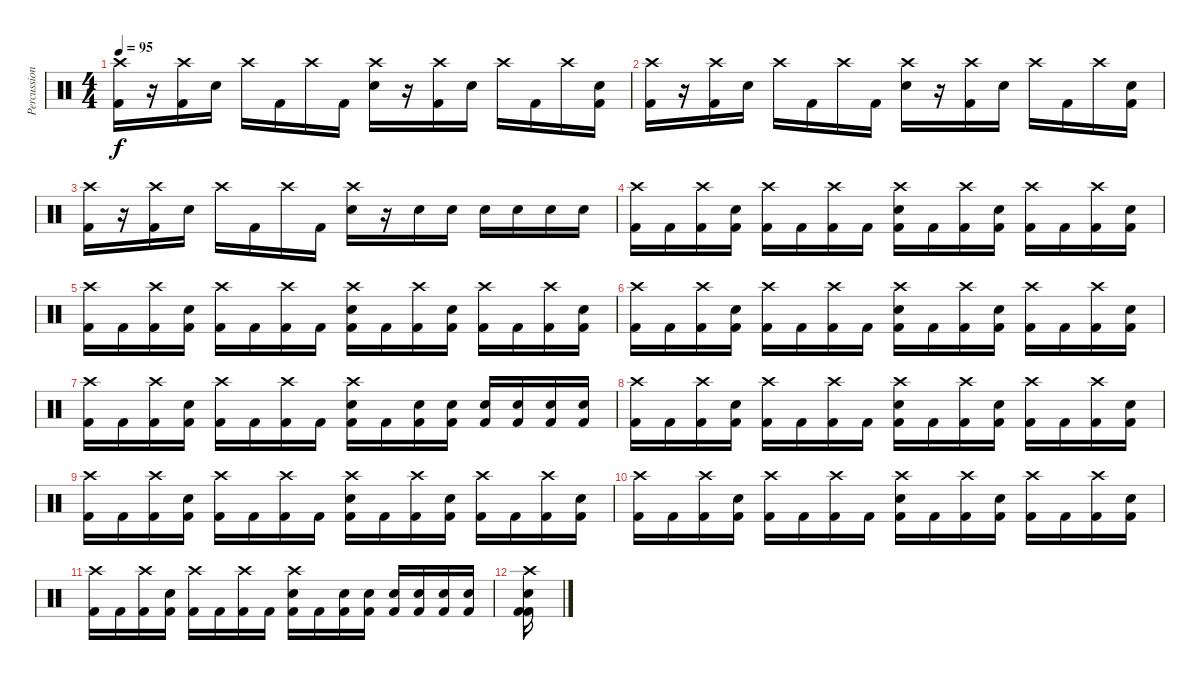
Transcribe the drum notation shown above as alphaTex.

\track ("Percussion" "Percussion") {instrument percussion}
\staff {score}
\articulation defaults
\ts (4 4)
\tempo 95
\clef neutral
\ks c
("Crash high (hit)" "Kick (hit) 2").16{dy f} r.16 ("Crash high (hit)" "Kick (hit) 2").16 "Snare (hit) 2".16 "Crash high (hit)".16 "Kick (hit) 2".16 "Crash high (hit)".16 "Kick (hit) 2".16 ("Crash high (hit)" "Snare (hit) 2").16 r.16 ("Crash high (hit)" "Kick (hit) 2").16 "Snare (hit) 2".16 "Crash high (hit)".16 "Kick (hit) 2".16 "Crash high (hit)".16 ("Snare (hit) 2" "Kick (hit) 2").16 |
("Crash high (hit)" "Kick (hit) 2").16 r.16 ("Crash high (hit)" "Kick (hit) 2").16 "Snare (hit) 2".16 "Crash high (hit)".16 "Kick (hit) 2".16 "Crash high (hit)".16 "Kick (hit) 2".16 ("Crash high (hit)" "Snare (hit) 2").16 r.16 ("Crash high (hit)" "Kick (hit) 2").16 "Snare (hit) 2".16 "Crash high (hit)".16 "Kick (hit) 2".16 "Crash high (hit)".16 ("Snare (hit) 2" "Kick (hit) 2").16 |
("Crash high (hit)" "Kick (hit) 2").16 r.16 ("Crash high (hit)" "Kick (hit) 2").16 "Snare (hit) 2".16 "Crash high (hit)".16 "Kick (hit) 2".16 "Crash high (hit)".16 "Kick (hit) 2".16 ("Crash high (hit)" "Snare (hit) 2").16 r.16 "Snare (hit) 2".16 "Snare (hit) 2".16 "Snare (hit) 2".16 "Snare (hit) 2".16 "Snare (hit) 2".16 "Snare (hit) 2".16 |
("Crash high (hit)" "Kick (hit) 2").16 "Kick (hit) 2".16 ("Crash high (hit)" "Kick (hit) 2").16 ("Snare (hit) 2" "Kick (hit) 2").16 ("Crash high (hit)" "Kick (hit) 2").16 "Kick (hit) 2".16 ("Crash high (hit)" "Kick (hit) 2").16 "Kick (hit) 2".16 ("Crash high (hit)" "Snare (hit) 2" "Kick (hit) 2").16 "Kick (hit) 2".16 ("Crash high (hit)" "Kick (hit) 2").16 ("Snare (hit) 2" "Kick (hit) 2").16 ("Crash high (hit)" "Kick (hit) 2").16 "Kick (hit) 2".16 ("Crash high (hit)" "Kick (hit) 2").16 ("Snare (hit) 2" "Kick (hit) 2").16 |
("Crash high (hit)" "Kick (hit) 2").16 "Kick (hit) 2".16 ("Crash high (hit)" "Kick (hit) 2").16 ("Snare (hit) 2" "Kick (hit) 2").16 ("Crash high (hit)" "Kick (hit) 2").16 "Kick (hit) 2".16 ("Crash high (hit)" "Kick (hit) 2").16 "Kick (hit) 2".16 ("Crash high (hit)" "Snare (hit) 2" "Kick (hit) 2").16 "Kick (hit) 2".16 ("Crash high (hit)" "Kick (hit) 2").16 ("Snare (hit) 2" "Kick (hit) 2").16 ("Crash high (hit)" "Kick (hit) 2").16 "Kick (hit) 2".16 ("Crash high (hit)" "Kick (hit) 2").16 ("Snare (hit) 2" "Kick (hit) 2").16 |
("Crash high (hit)" "Kick (hit) 2").16 "Kick (hit) 2".16 ("Crash high (hit)" "Kick (hit) 2").16 ("Snare (hit) 2" "Kick (hit) 2").16 ("Crash high (hit)" "Kick (hit) 2").16 "Kick (hit) 2".16 ("Crash high (hit)" "Kick (hit) 2").16 "Kick (hit) 2".16 ("Crash high (hit)" "Snare (hit) 2" "Kick (hit) 2").16 "Kick (hit) 2".16 ("Crash high (hit)" "Kick (hit) 2").16 ("Snare (hit) 2" "Kick (hit) 2").16 ("Crash high (hit)" "Kick (hit) 2").16 "Kick (hit) 2".16 ("Crash high (hit)" "Kick (hit) 2").16 ("Snare (hit) 2" "Kick (hit) 2").16 |
("Crash high (hit)" "Kick (hit) 2").16 "Kick (hit) 2".16 ("Crash high (hit)" "Kick (hit) 2").16 ("Snare (hit) 2" "Kick (hit) 2").16 ("Crash high (hit)" "Kick (hit) 2").16 "Kick (hit) 2".16 ("Crash high (hit)" "Kick (hit) 2").16 "Kick (hit) 2".16 ("Crash high (hit)" "Snare (hit) 2" "Kick (hit) 2").16 "Kick (hit) 2".16 ("Snare (hit) 2" "Kick (hit) 2").16 ("Snare (hit) 2" "Kick (hit) 2").16 ("Snare (hit) 2" "Kick (hit) 2").16 ("Snare (hit) 2" "Kick (hit) 2").16 ("Snare (hit) 2" "Kick (hit) 2").16 ("Snare (hit) 2" "Kick (hit) 2").16 |
("Crash high (hit)" "Kick (hit) 2").16 "Kick (hit) 2".16 ("Crash high (hit)" "Kick (hit) 2").16 ("Snare (hit) 2" "Kick (hit) 2").16 ("Crash high (hit)" "Kick (hit) 2").16 "Kick (hit) 2".16 ("Crash high (hit)" "Kick (hit) 2").16 "Kick (hit) 2".16 ("Crash high (hit)" "Snare (hit) 2" "Kick (hit) 2").16 "Kick (hit) 2".16 ("Crash high (hit)" "Kick (hit) 2").16 ("Snare (hit) 2" "Kick (hit) 2").16 ("Crash high (hit)" "Kick (hit) 2").16 "Kick (hit) 2".16 ("Crash high (hit)" "Kick (hit) 2").16 ("Snare (hit) 2" "Kick (hit) 2").16 |
("Crash high (hit)" "Kick (hit) 2").16 "Kick (hit) 2".16 ("Crash high (hit)" "Kick (hit) 2").16 ("Snare (hit) 2" "Kick (hit) 2").16 ("Crash high (hit)" "Kick (hit) 2").16 "Kick (hit) 2".16 ("Crash high (hit)" "Kick (hit) 2").16 "Kick (hit) 2".16 ("Crash high (hit)" "Snare (hit) 2" "Kick (hit) 2").16 "Kick (hit) 2".16 ("Crash high (hit)" "Kick (hit) 2").16 ("Snare (hit) 2" "Kick (hit) 2").16 ("Crash high (hit)" "Kick (hit) 2").16 "Kick (hit) 2".16 ("Crash high (hit)" "Kick (hit) 2").16 ("Snare (hit) 2" "Kick (hit) 2").16 |
("Crash high (hit)" "Kick (hit) 2").16 "Kick (hit) 2".16 ("Crash high (hit)" "Kick (hit) 2").16 ("Snare (hit) 2" "Kick (hit) 2").16 ("Crash high (hit)" "Kick (hit) 2").16 "Kick (hit) 2".16 ("Crash high (hit)" "Kick (hit) 2").16 "Kick (hit) 2".16 ("Crash high (hit)" "Snare (hit) 2" "Kick (hit) 2").16 "Kick (hit) 2".16 ("Crash high (hit)" "Kick (hit) 2").16 ("Snare (hit) 2" "Kick (hit) 2").16 ("Crash high (hit)" "Kick (hit) 2").16 "Kick (hit) 2".16 ("Crash high (hit)" "Kick (hit) 2").16 ("Snare (hit) 2" "Kick (hit) 2").16 |
("Crash high (hit)" "Kick (hit) 2").16 "Kick (hit) 2".16 ("Crash high (hit)" "Kick (hit) 2").16 ("Snare (hit) 2" "Kick (hit) 2").16 ("Crash high (hit)" "Kick (hit) 2").16 "Kick (hit) 2".16 ("Crash high (hit)" "Kick (hit) 2").16 "Kick (hit) 2".16 ("Crash high (hit)" "Snare (hit) 2" "Kick (hit) 2").16 "Kick (hit) 2".16 ("Snare (hit) 2" "Kick (hit) 2").16 ("Snare (hit) 2" "Kick (hit) 2").16 ("Snare (hit) 2" "Kick (hit) 2").16 ("Snare (hit) 2" "Kick (hit) 2").16 ("Snare (hit) 2" "Kick (hit) 2").16 ("Snare (hit) 2" "Kick (hit) 2").16 |
("Crash high (hit)" "Snare (hit) 2" "Kick (hit) 2" "Kick (hit) 2").16
